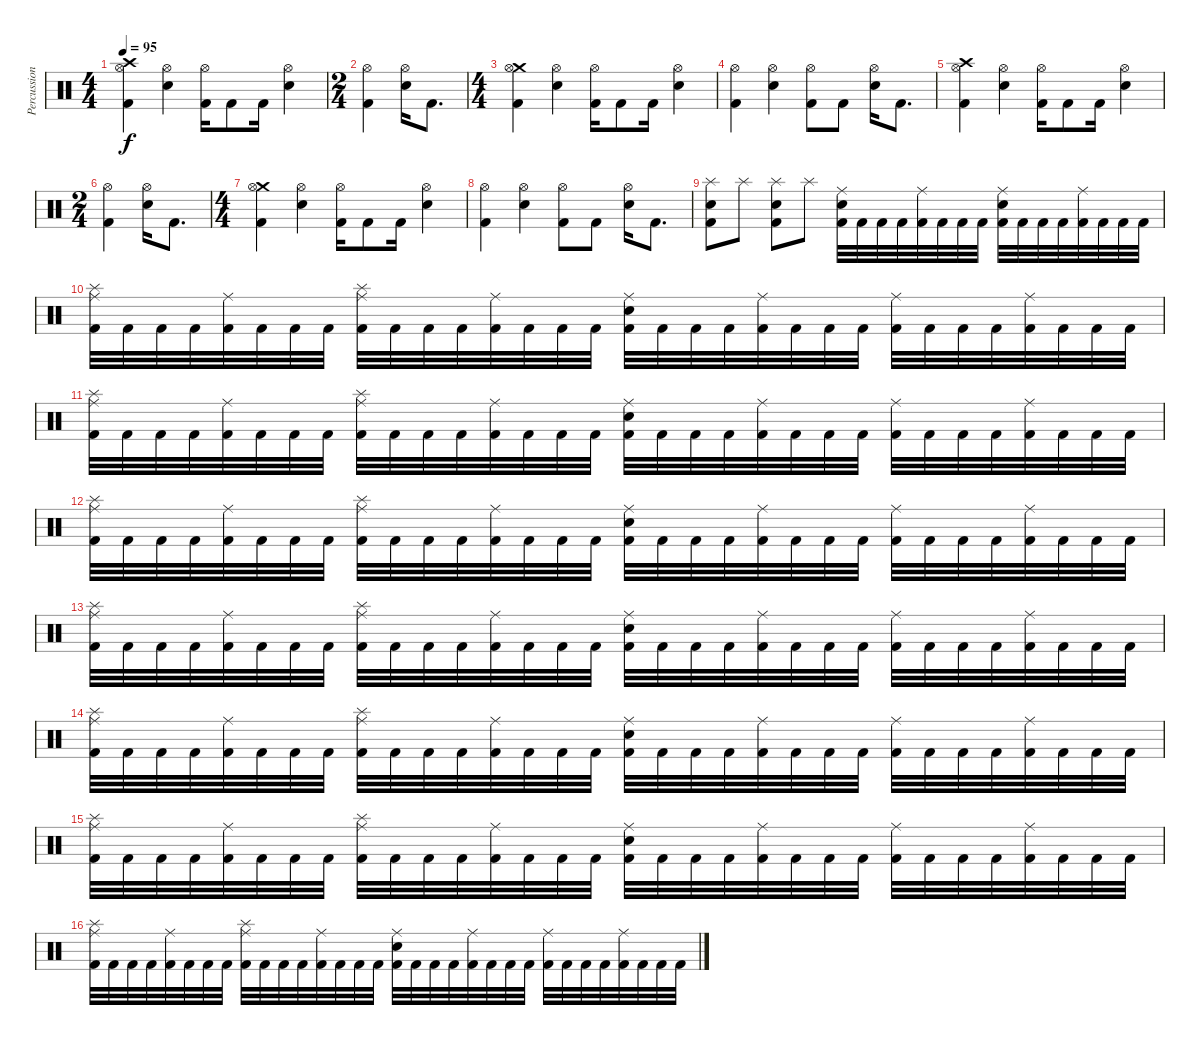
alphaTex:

\track ("Percussions" "Percussion") {instrument percussion}
\staff {score}
\articulation defaults
\ts (4 4)
\tempo 95
\clef neutral
\ks c
("Crash high (hit)" "Hi-Hat (open)" "Kick (hit) 2").4{dy f} ("Hi-Hat (open)" "Electric Snare (hit)").4 ("Hi-Hat (open)" "Kick (hit) 2").16 "Kick (hit) 2".8 "Kick (hit) 2".16 ("Hi-Hat (open)" "Electric Snare (hit)").4 |
\ts (2 4)
("Hi-Hat (open)" "Kick (hit) 2").4 ("Hi-Hat (open)" "Electric Snare (hit)").16 "Kick (hit) 2".8{d} |
\ts (4 4)
("Crash medium (hit)" "Hi-Hat (open)" "Kick (hit) 2").4 ("Hi-Hat (open)" "Electric Snare (hit)").4 ("Hi-Hat (open)" "Kick (hit) 2").16 "Kick (hit) 2".8 "Kick (hit) 2".16 ("Hi-Hat (open)" "Electric Snare (hit)").4 |
("Hi-Hat (open)" "Kick (hit) 2").4 ("Hi-Hat (open)" "Electric Snare (hit)").4 ("Hi-Hat (open)" "Kick (hit) 2").8 "Kick (hit) 2".8 ("Hi-Hat (open)" "Electric Snare (hit)").16 "Kick (hit) 2".8{d} |
("Crash high (hit)" "Hi-Hat (open)" "Kick (hit) 2").4 ("Hi-Hat (open)" "Electric Snare (hit)").4 ("Hi-Hat (open)" "Kick (hit) 2").16 "Kick (hit) 2".8 "Kick (hit) 2".16 ("Hi-Hat (open)" "Electric Snare (hit)").4 |
\ts (2 4)
("Hi-Hat (open)" "Kick (hit) 2").4 ("Hi-Hat (open)" "Electric Snare (hit)").16 "Kick (hit) 2".8{d} |
\ts (4 4)
("Crash medium (hit)" "Hi-Hat (open)" "Kick (hit) 2").4 ("Hi-Hat (open)" "Electric Snare (hit)").4 ("Hi-Hat (open)" "Kick (hit) 2").16 "Kick (hit) 2".8 "Kick (hit) 2".16 ("Hi-Hat (open)" "Electric Snare (hit)").4 |
("Hi-Hat (open)" "Kick (hit) 2").4 ("Hi-Hat (open)" "Electric Snare (hit)").4 ("Hi-Hat (open)" "Kick (hit) 2").8 "Kick (hit) 2".8 ("Hi-Hat (open)" "Electric Snare (hit)").16 "Kick (hit) 2".8{d} |
("Splash (hit)" "Electric Snare (hit)" "Kick (hit) 2").8 "Splash (hit)".8 ("Splash (hit)" "Electric Snare (hit)" "Kick (hit) 2").8 "Splash (hit)".8 ("Ride (middle)" "Electric Snare (hit)" "Kick (hit) 2").32 "Kick (hit) 2".32 "Kick (hit) 2".32 "Kick (hit) 2".32 ("Ride (middle)" "Kick (hit) 2").32 "Kick (hit) 2".32 "Kick (hit) 2".32 "Kick (hit) 2".32 ("Ride (middle)" "Electric Snare (hit)" "Kick (hit) 2").32 "Kick (hit) 2".32 "Kick (hit) 2".32 "Kick (hit) 2".32 ("Ride (middle)" "Kick (hit) 2").32 "Kick (hit) 2".32 "Kick (hit) 2".32 "Kick (hit) 2".32 |
("Ride (middle)" "Splash (hit)" "Kick (hit) 2").32 "Kick (hit) 2".32 "Kick (hit) 2".32 "Kick (hit) 2".32 ("Ride (middle)" "Kick (hit) 2").32 "Kick (hit) 2".32 "Kick (hit) 2".32 "Kick (hit) 2".32 ("Ride (middle)" "Splash (hit)" "Kick (hit) 2").32 "Kick (hit) 2".32 "Kick (hit) 2".32 "Kick (hit) 2".32 ("Ride (middle)" "Kick (hit) 2").32 "Kick (hit) 2".32 "Kick (hit) 2".32 "Kick (hit) 2".32 ("Ride (middle)" "Electric Snare (hit)" "Kick (hit) 2").32 "Kick (hit) 2".32 "Kick (hit) 2".32 "Kick (hit) 2".32 ("Ride (middle)" "Kick (hit) 2").32 "Kick (hit) 2".32 "Kick (hit) 2".32 "Kick (hit) 2".32 ("Ride (middle)" "Kick (hit) 2").32 "Kick (hit) 2".32 "Kick (hit) 2".32 "Kick (hit) 2".32 ("Ride (middle)" "Kick (hit) 2").32 "Kick (hit) 2".32 "Kick (hit) 2".32 "Kick (hit) 2".32 |
("Ride (middle)" "Splash (hit)" "Kick (hit) 2").32 "Kick (hit) 2".32 "Kick (hit) 2".32 "Kick (hit) 2".32 ("Ride (middle)" "Kick (hit) 2").32 "Kick (hit) 2".32 "Kick (hit) 2".32 "Kick (hit) 2".32 ("Ride (middle)" "Splash (hit)" "Kick (hit) 2").32 "Kick (hit) 2".32 "Kick (hit) 2".32 "Kick (hit) 2".32 ("Ride (middle)" "Kick (hit) 2").32 "Kick (hit) 2".32 "Kick (hit) 2".32 "Kick (hit) 2".32 ("Ride (middle)" "Electric Snare (hit)" "Kick (hit) 2").32 "Kick (hit) 2".32 "Kick (hit) 2".32 "Kick (hit) 2".32 ("Ride (middle)" "Kick (hit) 2").32 "Kick (hit) 2".32 "Kick (hit) 2".32 "Kick (hit) 2".32 ("Ride (middle)" "Kick (hit) 2").32 "Kick (hit) 2".32 "Kick (hit) 2".32 "Kick (hit) 2".32 ("Ride (middle)" "Kick (hit) 2").32 "Kick (hit) 2".32 "Kick (hit) 2".32 "Kick (hit) 2".32 |
("Ride (middle)" "Splash (hit)" "Kick (hit) 2").32 "Kick (hit) 2".32 "Kick (hit) 2".32 "Kick (hit) 2".32 ("Ride (middle)" "Kick (hit) 2").32 "Kick (hit) 2".32 "Kick (hit) 2".32 "Kick (hit) 2".32 ("Ride (middle)" "Splash (hit)" "Kick (hit) 2").32 "Kick (hit) 2".32 "Kick (hit) 2".32 "Kick (hit) 2".32 ("Ride (middle)" "Kick (hit) 2").32 "Kick (hit) 2".32 "Kick (hit) 2".32 "Kick (hit) 2".32 ("Ride (middle)" "Electric Snare (hit)" "Kick (hit) 2").32 "Kick (hit) 2".32 "Kick (hit) 2".32 "Kick (hit) 2".32 ("Ride (middle)" "Kick (hit) 2").32 "Kick (hit) 2".32 "Kick (hit) 2".32 "Kick (hit) 2".32 ("Ride (middle)" "Kick (hit) 2").32 "Kick (hit) 2".32 "Kick (hit) 2".32 "Kick (hit) 2".32 ("Ride (middle)" "Kick (hit) 2").32 "Kick (hit) 2".32 "Kick (hit) 2".32 "Kick (hit) 2".32 |
("Ride (middle)" "Splash (hit)" "Kick (hit) 2").32 "Kick (hit) 2".32 "Kick (hit) 2".32 "Kick (hit) 2".32 ("Ride (middle)" "Kick (hit) 2").32 "Kick (hit) 2".32 "Kick (hit) 2".32 "Kick (hit) 2".32 ("Ride (middle)" "Splash (hit)" "Kick (hit) 2").32 "Kick (hit) 2".32 "Kick (hit) 2".32 "Kick (hit) 2".32 ("Ride (middle)" "Kick (hit) 2").32 "Kick (hit) 2".32 "Kick (hit) 2".32 "Kick (hit) 2".32 ("Ride (middle)" "Electric Snare (hit)" "Kick (hit) 2").32 "Kick (hit) 2".32 "Kick (hit) 2".32 "Kick (hit) 2".32 ("Ride (middle)" "Kick (hit) 2").32 "Kick (hit) 2".32 "Kick (hit) 2".32 "Kick (hit) 2".32 ("Ride (middle)" "Kick (hit) 2").32 "Kick (hit) 2".32 "Kick (hit) 2".32 "Kick (hit) 2".32 ("Ride (middle)" "Kick (hit) 2").32 "Kick (hit) 2".32 "Kick (hit) 2".32 "Kick (hit) 2".32 |
("Ride (middle)" "Splash (hit)" "Kick (hit) 2").32 "Kick (hit) 2".32 "Kick (hit) 2".32 "Kick (hit) 2".32 ("Ride (middle)" "Kick (hit) 2").32 "Kick (hit) 2".32 "Kick (hit) 2".32 "Kick (hit) 2".32 ("Ride (middle)" "Splash (hit)" "Kick (hit) 2").32 "Kick (hit) 2".32 "Kick (hit) 2".32 "Kick (hit) 2".32 ("Ride (middle)" "Kick (hit) 2").32 "Kick (hit) 2".32 "Kick (hit) 2".32 "Kick (hit) 2".32 ("Ride (middle)" "Electric Snare (hit)" "Kick (hit) 2").32 "Kick (hit) 2".32 "Kick (hit) 2".32 "Kick (hit) 2".32 ("Ride (middle)" "Kick (hit) 2").32 "Kick (hit) 2".32 "Kick (hit) 2".32 "Kick (hit) 2".32 ("Ride (middle)" "Kick (hit) 2").32 "Kick (hit) 2".32 "Kick (hit) 2".32 "Kick (hit) 2".32 ("Ride (middle)" "Kick (hit) 2").32 "Kick (hit) 2".32 "Kick (hit) 2".32 "Kick (hit) 2".32 |
("Ride (middle)" "Splash (hit)" "Kick (hit) 2").32 "Kick (hit) 2".32 "Kick (hit) 2".32 "Kick (hit) 2".32 ("Ride (middle)" "Kick (hit) 2").32 "Kick (hit) 2".32 "Kick (hit) 2".32 "Kick (hit) 2".32 ("Ride (middle)" "Splash (hit)" "Kick (hit) 2").32 "Kick (hit) 2".32 "Kick (hit) 2".32 "Kick (hit) 2".32 ("Ride (middle)" "Kick (hit) 2").32 "Kick (hit) 2".32 "Kick (hit) 2".32 "Kick (hit) 2".32 ("Ride (middle)" "Electric Snare (hit)" "Kick (hit) 2").32 "Kick (hit) 2".32 "Kick (hit) 2".32 "Kick (hit) 2".32 ("Ride (middle)" "Kick (hit) 2").32 "Kick (hit) 2".32 "Kick (hit) 2".32 "Kick (hit) 2".32 ("Ride (middle)" "Kick (hit) 2").32 "Kick (hit) 2".32 "Kick (hit) 2".32 "Kick (hit) 2".32 ("Ride (middle)" "Kick (hit) 2").32 "Kick (hit) 2".32 "Kick (hit) 2".32 "Kick (hit) 2".32 |
("Ride (middle)" "Splash (hit)" "Kick (hit) 2").32 "Kick (hit) 2".32 "Kick (hit) 2".32 "Kick (hit) 2".32 ("Ride (middle)" "Kick (hit) 2").32 "Kick (hit) 2".32 "Kick (hit) 2".32 "Kick (hit) 2".32 ("Ride (middle)" "Splash (hit)" "Kick (hit) 2").32 "Kick (hit) 2".32 "Kick (hit) 2".32 "Kick (hit) 2".32 ("Ride (middle)" "Kick (hit) 2").32 "Kick (hit) 2".32 "Kick (hit) 2".32 "Kick (hit) 2".32 ("Ride (middle)" "Electric Snare (hit)" "Kick (hit) 2").32 "Kick (hit) 2".32 "Kick (hit) 2".32 "Kick (hit) 2".32 ("Ride (middle)" "Kick (hit) 2").32 "Kick (hit) 2".32 "Kick (hit) 2".32 "Kick (hit) 2".32 ("Ride (middle)" "Kick (hit) 2").32 "Kick (hit) 2".32 "Kick (hit) 2".32 "Kick (hit) 2".32 ("Ride (middle)" "Kick (hit) 2").32 "Kick (hit) 2".32 "Kick (hit) 2".32 "Kick (hit) 2".32
